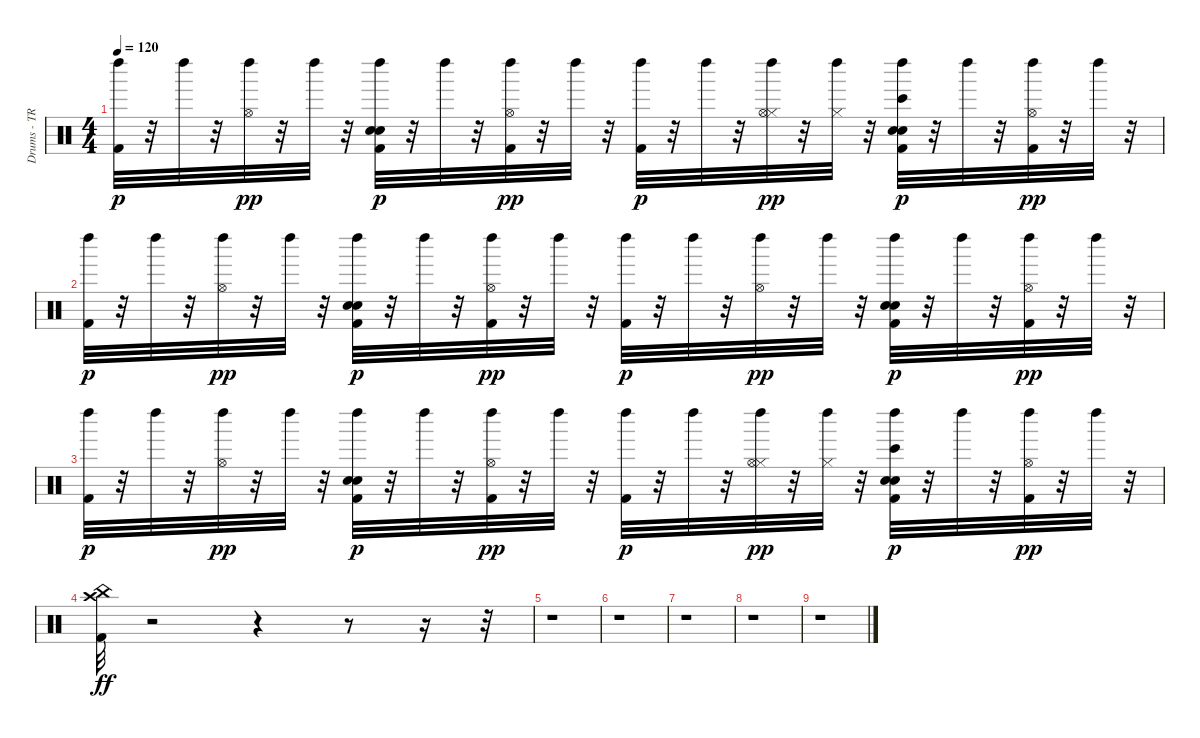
\track ("Drums - TR" "Drums - TR") {instrument percussion}
\staff {score}
\articulation defaults
\ts (4 4)
\tempo 120
\clef neutral
\ks c
("Kick (hit) 2" "Left Maraca (hit)").32{dy p} r.32 "Left Maraca (hit)".32 r.32 ("Hi-Hat (open)" "Left Maraca (hit)").32{dy pp} r.32 "Left Maraca (hit)".32 r.32 ("Kick (hit) 2" "Snare (hit) 2" "Hand Clap (hit)" "Left Maraca (hit)").32{dy p} r.32 "Left Maraca (hit)".32 r.32 ("Kick (hit) 2" "Hi-Hat (open)" "Left Maraca (hit)").32{dy pp} r.32 "Left Maraca (hit)".32 r.32 ("Kick (hit) 2" "Left Maraca (hit)").32{dy p} r.32 "Left Maraca (hit)".32 r.32 ("Hi-Hat (closed)" "Hi-Hat (open)" "Left Maraca (hit)").32{dy pp} r.32 ("Hi-Hat (closed)" "Left Maraca (hit)").32 r.32 ("Kick (hit) 2" "Snare (hit) 2" "Hand Clap (hit)" "Left Maraca (hit)" "Bongo High (hit)").32{dy p} r.32 "Left Maraca (hit)".32 r.32 ("Kick (hit) 2" "Hi-Hat (open)" "Left Maraca (hit)").32{dy pp} r.32 "Left Maraca (hit)".32 r.32 |
("Kick (hit) 2" "Left Maraca (hit)").32{dy p} r.32 "Left Maraca (hit)".32 r.32 ("Hi-Hat (open)" "Left Maraca (hit)").32{dy pp} r.32 "Left Maraca (hit)".32 r.32 ("Kick (hit) 2" "Snare (hit) 2" "Hand Clap (hit)" "Left Maraca (hit)").32{dy p} r.32 "Left Maraca (hit)".32 r.32 ("Kick (hit) 2" "Hi-Hat (open)" "Left Maraca (hit)").32{dy pp} r.32 "Left Maraca (hit)".32 r.32 ("Kick (hit) 2" "Left Maraca (hit)").32{dy p} r.32 "Left Maraca (hit)".32 r.32 ("Hi-Hat (open)" "Left Maraca (hit)").32{dy pp} r.32 "Left Maraca (hit)".32 r.32 ("Kick (hit) 2" "Snare (hit) 2" "Hand Clap (hit)" "Left Maraca (hit)").32{dy p} r.32 "Left Maraca (hit)".32 r.32 ("Kick (hit) 2" "Hi-Hat (open)" "Left Maraca (hit)").32{dy pp} r.32 "Left Maraca (hit)".32 r.32 |
("Kick (hit) 2" "Left Maraca (hit)").32{dy p} r.32 "Left Maraca (hit)".32 r.32 ("Hi-Hat (open)" "Left Maraca (hit)").32{dy pp} r.32 "Left Maraca (hit)".32 r.32 ("Kick (hit) 2" "Snare (hit) 2" "Hand Clap (hit)" "Left Maraca (hit)").32{dy p} r.32 "Left Maraca (hit)".32 r.32 ("Kick (hit) 2" "Hi-Hat (open)" "Left Maraca (hit)").32{dy pp} r.32 "Left Maraca (hit)".32 r.32 ("Kick (hit) 2" "Left Maraca (hit)").32{dy p} r.32 "Left Maraca (hit)".32 r.32 ("Hi-Hat (closed)" "Hi-Hat (open)" "Left Maraca (hit)").32{dy pp} r.32 ("Hi-Hat (closed)" "Left Maraca (hit)").32 r.32 ("Kick (hit) 2" "Snare (hit) 2" "Hand Clap (hit)" "Left Maraca (hit)" "Bongo High (hit)").32{dy p} r.32 "Left Maraca (hit)".32 r.32 ("Kick (hit) 2" "Hi-Hat (open)" "Left Maraca (hit)").32{dy pp} r.32 "Left Maraca (hit)".32 r.32 |
("Kick (hit) 2" "Crash high (hit)" "China (hit)").32{dy ff} r.2 r.4 r.8 r.16 r.32 |
r.1 |
r.1 |
r.1 |
r.1 |
r.1
